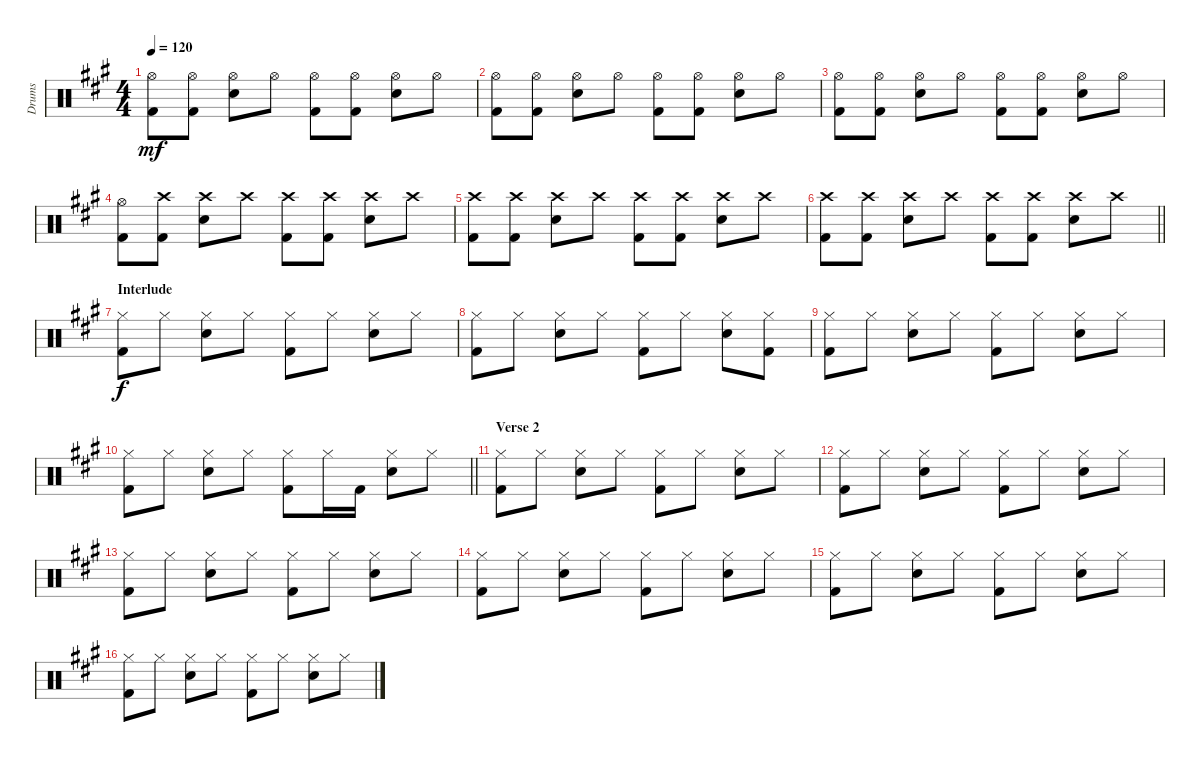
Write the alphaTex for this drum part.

\track ("Drums" "Drums") {instrument percussion}
\staff {score}
\articulation defaults
\ts (4 4)
\tempo 120
\clef neutral
\ks a
("Hi-Hat (open)" "Kick (hit) 2").8{dy mf} ("Hi-Hat (open)" "Kick (hit) 2").8 ("Hi-Hat (open)" "Electric Snare (hit)").8 "Hi-Hat (open)".8 ("Hi-Hat (open)" "Kick (hit) 2").8 ("Hi-Hat (open)" "Kick (hit) 2").8 ("Hi-Hat (open)" "Electric Snare (hit)").8 "Hi-Hat (open)".8 |
("Hi-Hat (open)" "Kick (hit) 2").8 ("Hi-Hat (open)" "Kick (hit) 2").8 ("Hi-Hat (open)" "Electric Snare (hit)").8 "Hi-Hat (open)".8 ("Hi-Hat (open)" "Kick (hit) 2").8 ("Hi-Hat (open)" "Kick (hit) 2").8 ("Hi-Hat (open)" "Electric Snare (hit)").8 "Hi-Hat (open)".8 |
("Hi-Hat (open)" "Kick (hit) 2").8 ("Hi-Hat (open)" "Kick (hit) 2").8 ("Hi-Hat (open)" "Electric Snare (hit)").8 "Hi-Hat (open)".8 ("Hi-Hat (open)" "Kick (hit) 2").8 ("Hi-Hat (open)" "Kick (hit) 2").8 ("Hi-Hat (open)" "Electric Snare (hit)").8 "Hi-Hat (open)".8 |
("Hi-Hat (open)" "Kick (hit) 2").8 ("Crash high (hit)" "Kick (hit) 2").8 ("Crash high (hit)" "Electric Snare (hit)").8 "Crash high (hit)".8 ("Crash high (hit)" "Kick (hit) 2").8 ("Crash high (hit)" "Kick (hit) 2").8 ("Crash high (hit)" "Electric Snare (hit)").8 "Crash high (hit)".8 |
("Crash high (hit)" "Kick (hit) 2").8 ("Crash high (hit)" "Kick (hit) 2").8 ("Crash high (hit)" "Electric Snare (hit)").8 "Crash high (hit)".8 ("Crash high (hit)" "Kick (hit) 2").8 ("Crash high (hit)" "Kick (hit) 2").8 ("Crash high (hit)" "Electric Snare (hit)").8 "Crash high (hit)".8 |
\barLineRight lightlight
("Crash high (hit)" "Kick (hit) 2").8 ("Crash high (hit)" "Kick (hit) 2").8 ("Crash high (hit)" "Electric Snare (hit)").8 "Crash high (hit)".8 ("Crash high (hit)" "Kick (hit) 2").8 ("Crash high (hit)" "Kick (hit) 2").8 ("Crash high (hit)" "Electric Snare (hit)").8 "Crash high (hit)".8 |
\section ("" "Interlude")
("Hi-Hat (closed)" "Kick (hit) 2").8{dy f} "Hi-Hat (closed)".8 ("Hi-Hat (closed)" "Electric Snare (hit)").8 "Hi-Hat (closed)".8 ("Hi-Hat (closed)" "Kick (hit) 2").8 "Hi-Hat (closed)".8 ("Hi-Hat (closed)" "Electric Snare (hit)").8 "Hi-Hat (closed)".8 |
("Hi-Hat (closed)" "Kick (hit) 2").8 "Hi-Hat (closed)".8 ("Hi-Hat (closed)" "Electric Snare (hit)").8 "Hi-Hat (closed)".8 ("Hi-Hat (closed)" "Kick (hit) 2").8 "Hi-Hat (closed)".8 ("Hi-Hat (closed)" "Electric Snare (hit)").8 ("Hi-Hat (closed)" "Kick (hit) 2").8 |
("Hi-Hat (closed)" "Kick (hit) 2").8 "Hi-Hat (closed)".8 ("Hi-Hat (closed)" "Electric Snare (hit)").8 "Hi-Hat (closed)".8 ("Hi-Hat (closed)" "Kick (hit) 2").8 "Hi-Hat (closed)".8 ("Hi-Hat (closed)" "Electric Snare (hit)").8 "Hi-Hat (closed)".8 |
\barLineRight lightlight
("Hi-Hat (closed)" "Kick (hit) 2").8 "Hi-Hat (closed)".8 ("Hi-Hat (closed)" "Electric Snare (hit)").8 "Hi-Hat (closed)".8 ("Hi-Hat (closed)" "Kick (hit) 2").8 "Hi-Hat (closed)".16 "Kick (hit) 2".16 ("Hi-Hat (closed)" "Electric Snare (hit)").8 "Hi-Hat (closed)".8 |
\section ("" "Verse 2")
("Hi-Hat (closed)" "Kick (hit) 2").8 "Hi-Hat (closed)".8 ("Hi-Hat (closed)" "Electric Snare (hit)").8 "Hi-Hat (closed)".8 ("Hi-Hat (closed)" "Kick (hit) 2").8 "Hi-Hat (closed)".8 ("Hi-Hat (closed)" "Electric Snare (hit)").8 "Hi-Hat (closed)".8 |
("Hi-Hat (closed)" "Kick (hit) 2").8 "Hi-Hat (closed)".8 ("Hi-Hat (closed)" "Electric Snare (hit)").8 "Hi-Hat (closed)".8 ("Hi-Hat (closed)" "Kick (hit) 2").8 "Hi-Hat (closed)".8 ("Hi-Hat (closed)" "Electric Snare (hit)").8 "Hi-Hat (closed)".8 |
("Hi-Hat (closed)" "Kick (hit) 2").8 "Hi-Hat (closed)".8 ("Hi-Hat (closed)" "Electric Snare (hit)").8 "Hi-Hat (closed)".8 ("Hi-Hat (closed)" "Kick (hit) 2").8 "Hi-Hat (closed)".8 ("Hi-Hat (closed)" "Electric Snare (hit)").8 "Hi-Hat (closed)".8 |
("Hi-Hat (closed)" "Kick (hit) 2").8 "Hi-Hat (closed)".8 ("Hi-Hat (closed)" "Electric Snare (hit)").8 "Hi-Hat (closed)".8 ("Hi-Hat (closed)" "Kick (hit) 2").8 "Hi-Hat (closed)".8 ("Hi-Hat (closed)" "Electric Snare (hit)").8 "Hi-Hat (closed)".8 |
("Hi-Hat (closed)" "Kick (hit) 2").8 "Hi-Hat (closed)".8 ("Hi-Hat (closed)" "Electric Snare (hit)").8 "Hi-Hat (closed)".8 ("Hi-Hat (closed)" "Kick (hit) 2").8 "Hi-Hat (closed)".8 ("Hi-Hat (closed)" "Electric Snare (hit)").8 "Hi-Hat (closed)".8 |
("Hi-Hat (closed)" "Kick (hit) 2").8 "Hi-Hat (closed)".8 ("Hi-Hat (closed)" "Electric Snare (hit)").8 "Hi-Hat (closed)".8 ("Hi-Hat (closed)" "Kick (hit) 2").8 "Hi-Hat (closed)".8 ("Hi-Hat (closed)" "Electric Snare (hit)").8 "Hi-Hat (closed)".8
